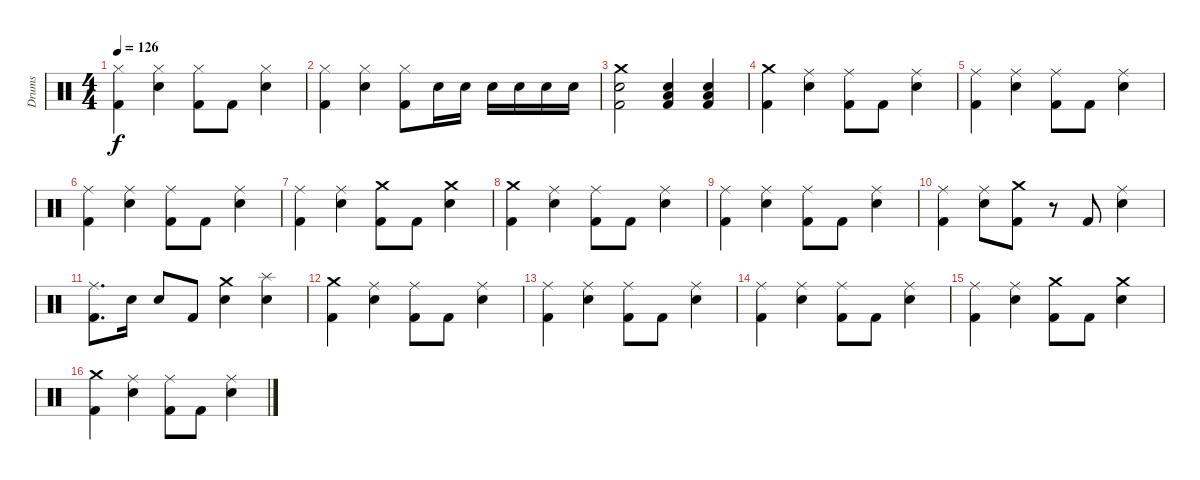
\track ("Drums" "Drums") {instrument percussion}
\staff {score}
\articulation defaults
\ts (4 4)
\tempo 126
\clef neutral
\ks c
("Hi-Hat (closed)" "Kick (hit) 2").4{dy f} ("Hi-Hat (closed)" "Electric Snare (hit)").4 ("Hi-Hat (closed)" "Kick (hit) 2").8 "Kick (hit) 2".8 ("Hi-Hat (closed)" "Electric Snare (hit)").4 |
("Hi-Hat (closed)" "Kick (hit) 2").4 ("Hi-Hat (closed)" "Electric Snare (hit)").4 ("Hi-Hat (closed)" "Kick (hit) 2").8 "Electric Snare (hit)".16 "Electric Snare (hit)".16 "Electric Snare (hit)".16 "Electric Snare (hit)".16 "Electric Snare (hit)".16 "Electric Snare (hit)".16 |
("Crash medium (hit)" "Electric Snare (hit)" "Kick (hit) 2").2 ("Electric Snare (hit)" "Low Floor Tom (hit)" "Kick (hit) 2").4 ("Electric Snare (hit)" "Low Floor Tom (hit)" "Kick (hit) 2").4 |
("Crash medium (hit)" "Kick (hit) 2").4 ("Ride (middle)" "Electric Snare (hit)").4 ("Ride (middle)" "Kick (hit) 2").8 "Kick (hit) 2".8 ("Ride (middle)" "Electric Snare (hit)").4 |
("Ride (middle)" "Kick (hit) 2").4 ("Ride (middle)" "Electric Snare (hit)").4 ("Ride (middle)" "Kick (hit) 2").8 "Kick (hit) 2".8 ("Ride (middle)" "Electric Snare (hit)").4 |
("Ride (middle)" "Kick (hit) 2").4 ("Ride (middle)" "Electric Snare (hit)").4 ("Ride (middle)" "Kick (hit) 2").8 "Kick (hit) 2".8 ("Ride (middle)" "Electric Snare (hit)").4 |
("Ride (middle)" "Kick (hit) 2").4 ("Ride (middle)" "Electric Snare (hit)").4 ("Crash medium (hit)" "Kick (hit) 2").8 "Kick (hit) 2".8 ("Crash medium (hit)" "Electric Snare (hit)").4 |
("Crash medium (hit)" "Kick (hit) 2").4 ("Ride (middle)" "Electric Snare (hit)").4 ("Ride (middle)" "Kick (hit) 2").8 "Kick (hit) 2".8 ("Ride (middle)" "Electric Snare (hit)").4 |
("Ride (middle)" "Kick (hit) 2").4 ("Ride (middle)" "Electric Snare (hit)").4 ("Ride (middle)" "Kick (hit) 2").8 "Kick (hit) 2".8 ("Ride (middle)" "Electric Snare (hit)").4 |
("Ride (middle)" "Kick (hit) 2").4 ("Ride (middle)" "Electric Snare (hit)").8 ("Crash medium (hit)" "Kick (hit) 2").8 r.8 "Kick (hit) 2".8 ("Ride (middle)" "Electric Snare (hit)").4 |
("Ride (middle)" "Kick (hit) 2").8{d} "Electric Snare (hit)".16 "Electric Snare (hit)".8 "Kick (hit) 2".8 ("Crash medium (hit)" "Electric Snare (hit)").4 ("Splash (hit)" "Electric Snare (hit)").4 |
("Crash medium (hit)" "Kick (hit) 2").4 ("Ride (middle)" "Electric Snare (hit)").4 ("Ride (middle)" "Kick (hit) 2").8 "Kick (hit) 2".8 ("Ride (middle)" "Electric Snare (hit)").4 |
("Ride (middle)" "Kick (hit) 2").4 ("Ride (middle)" "Electric Snare (hit)").4 ("Ride (middle)" "Kick (hit) 2").8 "Kick (hit) 2".8 ("Ride (middle)" "Electric Snare (hit)").4 |
("Ride (middle)" "Kick (hit) 2").4 ("Ride (middle)" "Electric Snare (hit)").4 ("Ride (middle)" "Kick (hit) 2").8 "Kick (hit) 2".8 ("Ride (middle)" "Electric Snare (hit)").4 |
("Ride (middle)" "Kick (hit) 2").4 ("Ride (middle)" "Electric Snare (hit)").4 ("Crash medium (hit)" "Kick (hit) 2").8 "Kick (hit) 2".8 ("Crash medium (hit)" "Electric Snare (hit)").4 |
("Crash medium (hit)" "Kick (hit) 2").4 ("Ride (middle)" "Electric Snare (hit)").4 ("Ride (middle)" "Kick (hit) 2").8 "Kick (hit) 2".8 ("Ride (middle)" "Electric Snare (hit)").4
